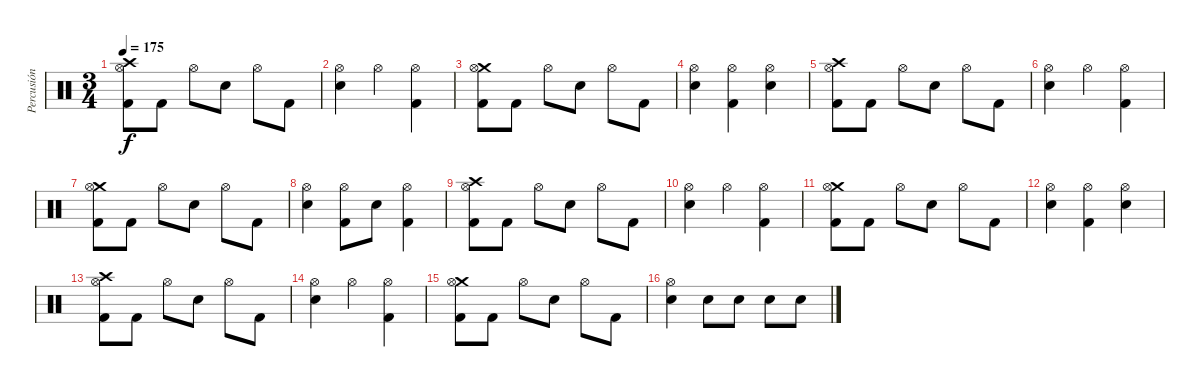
\track ("Percusión" "Percusión") {instrument percussion}
\staff {score}
\articulation defaults
\ts (3 4)
\tempo 175
\clef neutral
\ks c
("Crash high (hit)" "Hi-Hat (open)" "Kick (hit) 2").8{dy f} "Kick (hit) 2".8 "Hi-Hat (open)".8 "Snare (hit) 2".8 "Hi-Hat (open)".8 "Kick (hit) 2".8 |
("Hi-Hat (open)" "Snare (hit) 2").4 "Hi-Hat (open)".4 ("Hi-Hat (open)" "Kick (hit) 2").4 |
("Crash medium (hit)" "Hi-Hat (open)" "Kick (hit) 2").8 "Kick (hit) 2".8 "Hi-Hat (open)".8 "Snare (hit) 2".8 "Hi-Hat (open)".8 "Kick (hit) 2".8 |
("Hi-Hat (open)" "Snare (hit) 2").4 ("Hi-Hat (open)" "Kick (hit) 2").4 ("Hi-Hat (open)" "Snare (hit) 2").4 |
("Crash high (hit)" "Hi-Hat (open)" "Kick (hit) 2").8 "Kick (hit) 2".8 "Hi-Hat (open)".8 "Snare (hit) 2".8 "Hi-Hat (open)".8 "Kick (hit) 2".8 |
("Hi-Hat (open)" "Snare (hit) 2").4 "Hi-Hat (open)".4 ("Hi-Hat (open)" "Kick (hit) 2").4 |
("Crash medium (hit)" "Hi-Hat (open)" "Kick (hit) 2").8 "Kick (hit) 2".8 "Hi-Hat (open)".8 "Snare (hit) 2".8 "Hi-Hat (open)".8 "Kick (hit) 2".8 |
("Hi-Hat (open)" "Snare (hit) 2").4 ("Hi-Hat (open)" "Kick (hit) 2").8 "Snare (hit) 2".8 ("Hi-Hat (open)" "Kick (hit) 2").4 |
("Crash high (hit)" "Hi-Hat (open)" "Kick (hit) 2").8 "Kick (hit) 2".8 "Hi-Hat (open)".8 "Snare (hit) 2".8 "Hi-Hat (open)".8 "Kick (hit) 2".8 |
("Hi-Hat (open)" "Snare (hit) 2").4 "Hi-Hat (open)".4 ("Hi-Hat (open)" "Kick (hit) 2").4 |
("Crash medium (hit)" "Hi-Hat (open)" "Kick (hit) 2").8 "Kick (hit) 2".8 "Hi-Hat (open)".8 "Snare (hit) 2".8 "Hi-Hat (open)".8 "Kick (hit) 2".8 |
("Hi-Hat (open)" "Snare (hit) 2").4 ("Hi-Hat (open)" "Kick (hit) 2").4 ("Hi-Hat (open)" "Snare (hit) 2").4 |
("Crash high (hit)" "Hi-Hat (open)" "Kick (hit) 2").8 "Kick (hit) 2".8 "Hi-Hat (open)".8 "Snare (hit) 2".8 "Hi-Hat (open)".8 "Kick (hit) 2".8 |
("Hi-Hat (open)" "Snare (hit) 2").4 "Hi-Hat (open)".4 ("Hi-Hat (open)" "Kick (hit) 2").4 |
("Crash medium (hit)" "Hi-Hat (open)" "Kick (hit) 2").8 "Kick (hit) 2".8 "Hi-Hat (open)".8 "Snare (hit) 2".8 "Hi-Hat (open)".8 "Kick (hit) 2".8 |
("Hi-Hat (open)" "Snare (hit) 2").4 "Snare (hit) 2".8 "Snare (hit) 2".8 "Snare (hit) 2".8 "Snare (hit) 2".8
